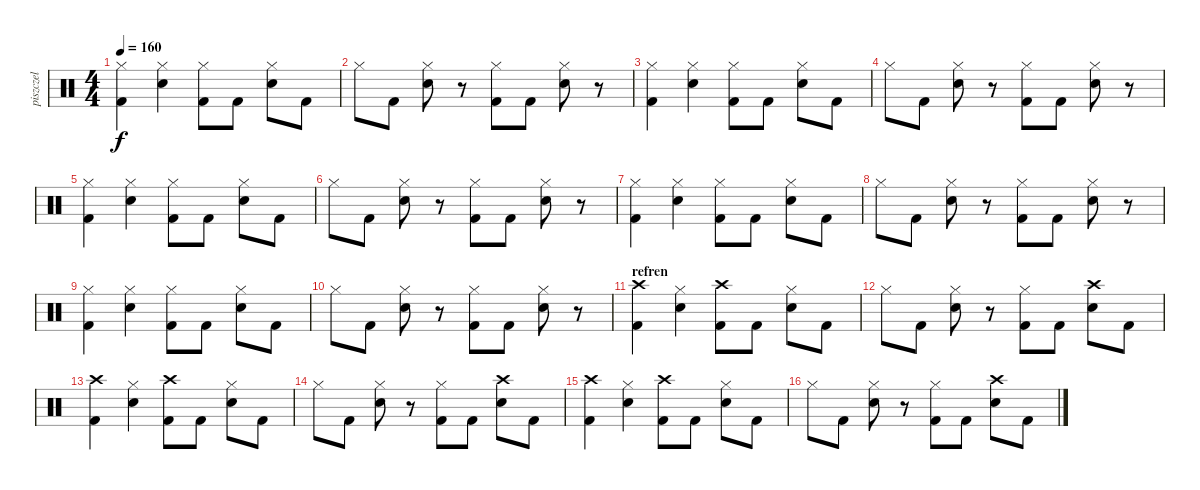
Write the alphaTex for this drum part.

\track ("piszczel" "piszczel") {instrument percussion}
\staff {score}
\articulation defaults
\ts (4 4)
\tempo 160
\clef neutral
\ks c
("Hi-Hat (closed)" "Kick (hit) 2").4{dy f} ("Hi-Hat (closed)" "Snare (hit) 2").4 ("Hi-Hat (closed)" "Kick (hit) 2").8 "Kick (hit) 2".8 ("Hi-Hat (closed)" "Snare (hit) 2").8 "Kick (hit) 2".8 |
"Hi-Hat (closed)".8 "Kick (hit) 2".8 ("Hi-Hat (closed)" "Snare (hit) 2").8 r.8 ("Hi-Hat (closed)" "Kick (hit) 2").8 "Kick (hit) 2".8 ("Hi-Hat (closed)" "Snare (hit) 2").8 r.8 |
("Hi-Hat (closed)" "Kick (hit) 2").4 ("Hi-Hat (closed)" "Snare (hit) 2").4 ("Hi-Hat (closed)" "Kick (hit) 2").8 "Kick (hit) 2".8 ("Hi-Hat (closed)" "Snare (hit) 2").8 "Kick (hit) 2".8 |
"Hi-Hat (closed)".8 "Kick (hit) 2".8 ("Hi-Hat (closed)" "Snare (hit) 2").8 r.8 ("Hi-Hat (closed)" "Kick (hit) 2").8 "Kick (hit) 2".8 ("Hi-Hat (closed)" "Snare (hit) 2").8 r.8 |
("Hi-Hat (closed)" "Kick (hit) 2").4 ("Hi-Hat (closed)" "Snare (hit) 2").4 ("Hi-Hat (closed)" "Kick (hit) 2").8 "Kick (hit) 2".8 ("Hi-Hat (closed)" "Snare (hit) 2").8 "Kick (hit) 2".8 |
"Hi-Hat (closed)".8 "Kick (hit) 2".8 ("Hi-Hat (closed)" "Snare (hit) 2").8 r.8 ("Hi-Hat (closed)" "Kick (hit) 2").8 "Kick (hit) 2".8 ("Hi-Hat (closed)" "Snare (hit) 2").8 r.8 |
("Hi-Hat (closed)" "Kick (hit) 2").4 ("Hi-Hat (closed)" "Snare (hit) 2").4 ("Hi-Hat (closed)" "Kick (hit) 2").8 "Kick (hit) 2".8 ("Hi-Hat (closed)" "Snare (hit) 2").8 "Kick (hit) 2".8 |
"Hi-Hat (closed)".8 "Kick (hit) 2".8 ("Hi-Hat (closed)" "Snare (hit) 2").8 r.8 ("Hi-Hat (closed)" "Kick (hit) 2").8 "Kick (hit) 2".8 ("Hi-Hat (closed)" "Snare (hit) 2").8 r.8 |
("Hi-Hat (closed)" "Kick (hit) 2").4 ("Hi-Hat (closed)" "Snare (hit) 2").4 ("Hi-Hat (closed)" "Kick (hit) 2").8 "Kick (hit) 2".8 ("Hi-Hat (closed)" "Snare (hit) 2").8 "Kick (hit) 2".8 |
"Hi-Hat (closed)".8 "Kick (hit) 2".8 ("Hi-Hat (closed)" "Snare (hit) 2").8 r.8 ("Hi-Hat (closed)" "Kick (hit) 2").8 "Kick (hit) 2".8 ("Hi-Hat (closed)" "Snare (hit) 2").8 r.8 |
\section ("" "refren")
("Crash high (hit)" "Kick (hit) 2").4 ("Hi-Hat (closed)" "Snare (hit) 2").4 ("Crash high (hit)" "Kick (hit) 2").8 "Kick (hit) 2".8 ("Hi-Hat (closed)" "Snare (hit) 2").8 "Kick (hit) 2".8 |
"Hi-Hat (closed)".8 "Kick (hit) 2".8 ("Hi-Hat (closed)" "Snare (hit) 2").8 r.8 ("Hi-Hat (closed)" "Kick (hit) 2").8 "Kick (hit) 2".8 ("Crash high (hit)" "Snare (hit) 2").8 "Kick (hit) 2".8 |
("Crash high (hit)" "Kick (hit) 2").4 ("Hi-Hat (closed)" "Snare (hit) 2").4 ("Crash high (hit)" "Kick (hit) 2").8 "Kick (hit) 2".8 ("Hi-Hat (closed)" "Snare (hit) 2").8 "Kick (hit) 2".8 |
"Hi-Hat (closed)".8 "Kick (hit) 2".8 ("Hi-Hat (closed)" "Snare (hit) 2").8 r.8 ("Hi-Hat (closed)" "Kick (hit) 2").8 "Kick (hit) 2".8 ("Crash high (hit)" "Snare (hit) 2").8 "Kick (hit) 2".8 |
("Crash high (hit)" "Kick (hit) 2").4 ("Hi-Hat (closed)" "Snare (hit) 2").4 ("Crash high (hit)" "Kick (hit) 2").8 "Kick (hit) 2".8 ("Hi-Hat (closed)" "Snare (hit) 2").8 "Kick (hit) 2".8 |
"Hi-Hat (closed)".8 "Kick (hit) 2".8 ("Hi-Hat (closed)" "Snare (hit) 2").8 r.8 ("Hi-Hat (closed)" "Kick (hit) 2").8 "Kick (hit) 2".8 ("Crash high (hit)" "Snare (hit) 2").8 "Kick (hit) 2".8
